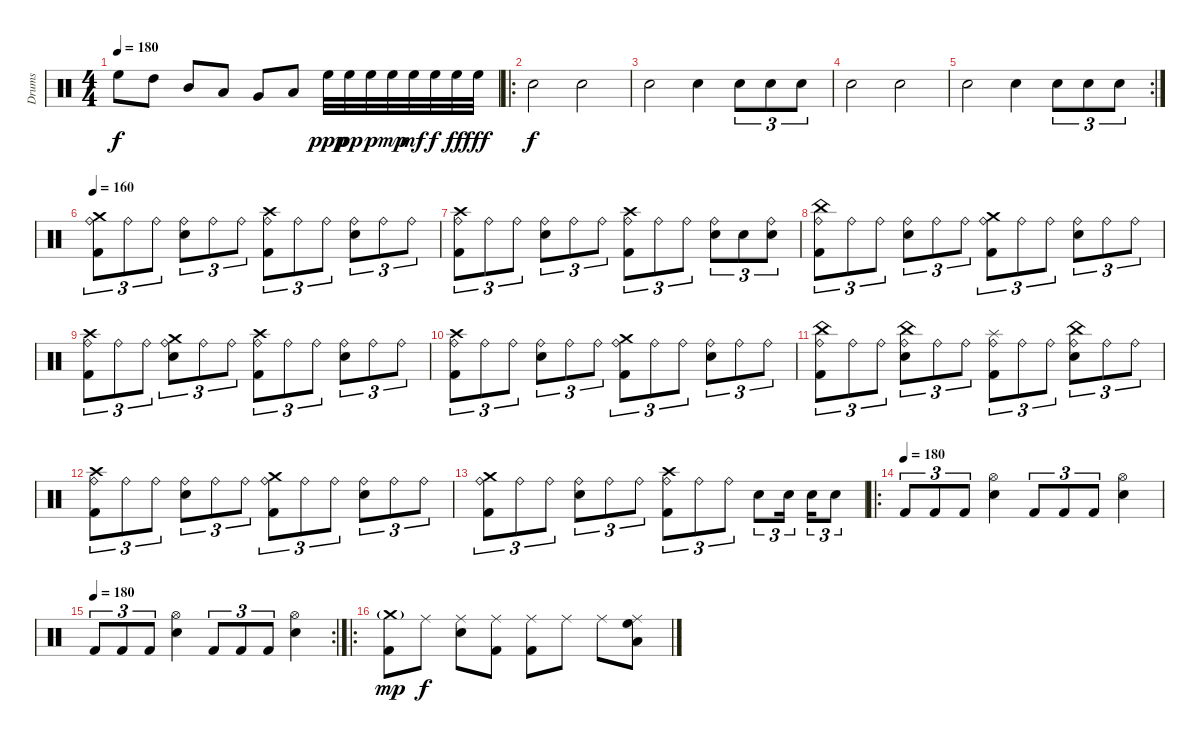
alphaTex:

\track ("Drums" "Drums") {instrument percussion}
\staff {score}
\articulation defaults
\ts (4 4)
\tempo 180
\clef neutral
\ks c "High Floor Tom (hit)".8{dy f} "High Tom (hit)".8 "Mid Tom (hit)".8 "Low Tom (hit)".8 "Very Low Tom (hit)".8 "Low Floor Tom (hit)".8 "High Floor Tom (hit)".32{dy ppp} "High Floor Tom (hit)".32{dy pp} "High Floor Tom (hit)".32{dy p} "High Floor Tom (hit)".32{dy mp} "High Floor Tom (hit)".32{dy mf} "High Floor Tom (hit)".32{dy f} "High Floor Tom (hit)".32{dy ff} "High Floor Tom (hit)".32{dy fff}
|
\ro "Electric Snare (hit)".2{dy f} "Electric Snare (hit)".2
|
"Electric Snare (hit)".2 "Electric Snare (hit)".4 "Electric Snare (hit)".8{tu (3 2)} "Electric Snare (hit)".8{tu (3 2)} "Electric Snare (hit)".8{tu (3 2)} |
"Electric Snare (hit)".2 "Electric Snare (hit)".2 |
\rc 2 "Electric Snare (hit)".2 "Electric Snare (hit)".4 "Electric Snare (hit)".8{tu (3 2)} "Electric Snare (hit)".8{tu (3 2)} "Electric Snare (hit)".8{tu (3 2)}
|
\tempo 160
("Ride (bell)" "Crash medium (hit)" "Kick (hit) 2").8{tu (3 2)} "Ride (bell)".8{tu (3 2)} "Ride (bell)".8{tu (3 2)} ("Ride (bell)" "Electric Snare (hit)").8{tu (3 2)} "Ride (bell)".8{tu (3 2)} "Ride (bell)".8{tu (3 2)} ("Ride (bell)" "Crash high (hit)" "Kick (hit) 2").8{tu (3 2)} "Ride (bell)".8{tu (3 2)} "Ride (bell)".8{tu (3 2)} ("Ride (bell)" "Electric Snare (hit)").8{tu (3 2)} "Ride (bell)".8{tu (3 2)} "Ride (bell)".8{tu (3 2)} |
("Ride (bell)" "Crash high (hit)" "Kick (hit) 2").8{tu (3 2)} "Ride (bell)".8{tu (3 2)} "Ride (bell)".8{tu (3 2)} ("Ride (bell)" "Electric Snare (hit)").8{tu (3 2)} "Ride (bell)".8{tu (3 2)} "Ride (bell)".8{tu (3 2)} ("Ride (bell)" "Crash high (hit)" "Kick (hit) 2").8{tu (3 2)} "Ride (bell)".8{tu (3 2)} "Ride (bell)".8{tu (3 2)} ("Ride (bell)" "Electric Snare (hit)").8{tu (3 2)} "Electric Snare (hit)".8{tu (3 2)} ("Ride (bell)" "Electric Snare (hit)").8{tu (3 2)} |
("Ride (bell)" "China (hit)" "Kick (hit) 2").8{tu (3 2)} "Ride (bell)".8{tu (3 2)} "Ride (bell)".8{tu (3 2)} ("Ride (bell)" "Electric Snare (hit)").8{tu (3 2)} "Ride (bell)".8{tu (3 2)} "Ride (bell)".8{tu (3 2)} ("Ride (bell)" "Crash medium (hit)" "Kick (hit) 2").8{tu (3 2)} "Ride (bell)".8{tu (3 2)} "Ride (bell)".8{tu (3 2)} ("Ride (bell)" "Electric Snare (hit)").8{tu (3 2)} "Ride (bell)".8{tu (3 2)} "Ride (bell)".8{tu (3 2)} |
("Ride (bell)" "Crash high (hit)" "Kick (hit) 2").8{tu (3 2)} "Ride (bell)".8{tu (3 2)} "Ride (bell)".8{tu (3 2)} ("Ride (bell)" "Electric Snare (hit)" "Crash medium (hit)").8{tu (3 2)} "Ride (bell)".8{tu (3 2)} "Ride (bell)".8{tu (3 2)} ("Ride (bell)" "Crash high (hit)" "Kick (hit) 2").8{tu (3 2)} "Ride (bell)".8{tu (3 2)} "Ride (bell)".8{tu (3 2)} ("Ride (bell)" "Electric Snare (hit)").8{tu (3 2)} "Ride (bell)".8{tu (3 2)} "Ride (bell)".8{tu (3 2)} |
("Ride (bell)" "Crash high (hit)" "Kick (hit) 2").8{tu (3 2)} "Ride (bell)".8{tu (3 2)} "Ride (bell)".8{tu (3 2)} ("Ride (bell)" "Electric Snare (hit)").8{tu (3 2)} "Ride (bell)".8{tu (3 2)} "Ride (bell)".8{tu (3 2)} ("Ride (bell)" "Crash medium (hit)" "Kick (hit) 2").8{tu (3 2)} "Ride (bell)".8{tu (3 2)} "Ride (bell)".8{tu (3 2)} ("Ride (bell)" "Electric Snare (hit)").8{tu (3 2)} "Ride (bell)".8{tu (3 2)} "Ride (bell)".8{tu (3 2)} |
("Ride (bell)" "China (hit)" "Kick (hit) 2").8{tu (3 2)} "Ride (bell)".8{tu (3 2)} "Ride (bell)".8{tu (3 2)} ("Ride (bell)" "Electric Snare (hit)" "China (hit)").8{tu (3 2)} "Ride (bell)".8{tu (3 2)} "Ride (bell)".8{tu (3 2)} ("Ride (bell)" "Splash (hit)" "Kick (hit) 2").8{tu (3 2)} "Ride (bell)".8{tu (3 2)} "Ride (bell)".8{tu (3 2)} ("Ride (bell)" "Electric Snare (hit)" "China (hit)").8{tu (3 2)} "Ride (bell)".8{tu (3 2)} "Ride (bell)".8{tu (3 2)} |
("Ride (bell)" "Crash high (hit)" "Kick (hit) 2").8{tu (3 2)} "Ride (bell)".8{tu (3 2)} "Ride (bell)".8{tu (3 2)} ("Ride (bell)" "Electric Snare (hit)").8{tu (3 2)} "Ride (bell)".8{tu (3 2)} "Ride (bell)".8{tu (3 2)} ("Ride (bell)" "Crash medium (hit)" "Kick (hit) 2").8{tu (3 2)} "Ride (bell)".8{tu (3 2)} "Ride (bell)".8{tu (3 2)} ("Ride (bell)" "Electric Snare (hit)").8{tu (3 2)} "Ride (bell)".8{tu (3 2)} "Ride (bell)".8{tu (3 2)} |
("Ride (bell)" "Crash medium (hit)" "Kick (hit) 2").8{tu (3 2)} "Ride (bell)".8{tu (3 2)} "Ride (bell)".8{tu (3 2)} ("Ride (bell)" "Electric Snare (hit)").8{tu (3 2)} "Ride (bell)".8{tu (3 2)} "Ride (bell)".8{tu (3 2)} ("Ride (bell)" "Crash high (hit)" "Kick (hit) 2").8{tu (3 2)} "Ride (bell)".8{tu (3 2)} "Ride (bell)".8{tu (3 2)} "Electric Snare (hit)".8{tu (3 2)} "Electric Snare (hit)".16{tu (3 2)} "Electric Snare (hit)".16{tu (3 2)} "Electric Snare (hit)".8{tu (3 2)} |
\ro
\tempo (180)
"Kick (hit) 2".8{tu (3 2)} "Kick (hit) 2".8{tu (3 2)} "Kick (hit) 2".8{tu (3 2)} ("Hi-Hat (open)" "Electric Snare (hit)").4 "Kick (hit) 2".8{tu (3 2)} "Kick (hit) 2".8{tu (3 2)} "Kick (hit) 2".8{tu (3 2)} ("Hi-Hat (open)" "Electric Snare (hit)").4 |
\rc 2
\tempo (180)
"Kick (hit) 2".8{tu (3 2)} "Kick (hit) 2".8{tu (3 2)} "Kick (hit) 2".8{tu (3 2)} ("Hi-Hat (open)" "Electric Snare (hit)").4 "Kick (hit) 2".8{tu (3 2)} "Kick (hit) 2".8{tu (3 2)} "Kick (hit) 2".8{tu (3 2)} ("Hi-Hat (open)" "Electric Snare (hit)").4 |
\ro
("Kick (hit) 2" "Crash medium (hit)"{g}).8{dy mp} "Ride (middle)".8{dy f} ("Electric Snare (hit)" "Ride (middle)").8 ("Kick (hit) 2" "Ride (middle)").8 ("Ride (middle)" "Kick (hit) 2").8 "Ride (middle)".8 "Ride (middle)".8 ("Low Tom (hit)" "High Floor Tom (hit)" "Ride (middle)").8
